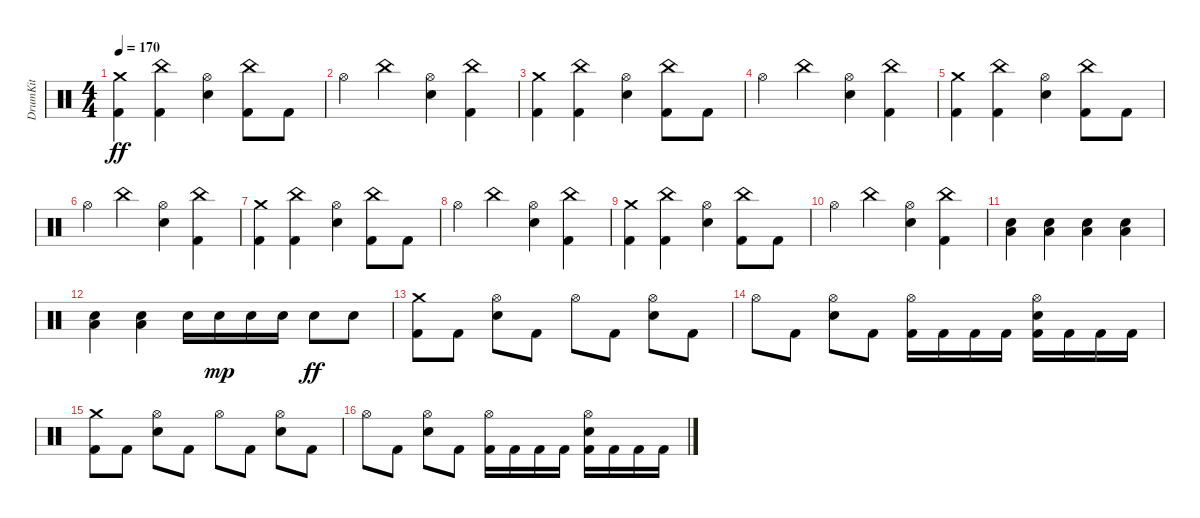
\track ("DrumKit" "DrumKit") {instrument percussion}
\staff {score}
\articulation defaults
\ts (4 4)
\tempo 170
\clef neutral
\ks c
("Kick (hit) 2" "Crash medium (hit)").4{dy ff} ("Kick (hit) 2" "China (hit)").4 ("Snare (hit) 2" "Hi-Hat (open)").4 ("Kick (hit) 2" "China (hit)").8 "Kick (hit) 2".8 |
"Hi-Hat (open)".4 "China (hit)".4 ("Snare (hit) 2" "Hi-Hat (open)").4 ("Kick (hit) 2" "China (hit)").4 |
("Kick (hit) 2" "Crash medium (hit)").4 ("Kick (hit) 2" "China (hit)").4 ("Snare (hit) 2" "Hi-Hat (open)").4 ("Kick (hit) 2" "China (hit)").8 "Kick (hit) 2".8 |
"Hi-Hat (open)".4 "China (hit)".4 ("Snare (hit) 2" "Hi-Hat (open)").4 ("Kick (hit) 2" "China (hit)").4 |
("Kick (hit) 2" "Crash medium (hit)").4 ("Kick (hit) 2" "China (hit)").4 ("Snare (hit) 2" "Hi-Hat (open)").4 ("Kick (hit) 2" "China (hit)").8 "Kick (hit) 2".8 |
"Hi-Hat (open)".4 "China (hit)".4 ("Snare (hit) 2" "Hi-Hat (open)").4 ("Kick (hit) 2" "China (hit)").4 |
("Kick (hit) 2" "Crash medium (hit)").4 ("Kick (hit) 2" "China (hit)").4 ("Snare (hit) 2" "Hi-Hat (open)").4 ("Kick (hit) 2" "China (hit)").8 "Kick (hit) 2".8 |
"Hi-Hat (open)".4 "China (hit)".4 ("Snare (hit) 2" "Hi-Hat (open)").4 ("Kick (hit) 2" "China (hit)").4 |
("Kick (hit) 2" "Crash medium (hit)").4 ("Kick (hit) 2" "China (hit)").4 ("Snare (hit) 2" "Hi-Hat (open)").4 ("Kick (hit) 2" "China (hit)").8 "Kick (hit) 2".8 |
"Hi-Hat (open)".4 "China (hit)".4 ("Snare (hit) 2" "Hi-Hat (open)").4 ("Kick (hit) 2" "China (hit)").4 |
("Snare (hit) 2" "Low Floor Tom (hit)").4 ("Snare (hit) 2" "Low Floor Tom (hit)").4 ("Snare (hit) 2" "Low Floor Tom (hit)").4 ("Snare (hit) 2" "Low Floor Tom (hit)").4 |
("Snare (hit) 2" "Low Floor Tom (hit)").4 ("Snare (hit) 2" "Low Floor Tom (hit)").4 "Snare (hit) 2".16 "Snare (hit) 2".16{dy mp} "Snare (hit) 2".16 "Snare (hit) 2".16 "Snare (hit) 2".8{dy ff} "Snare (hit) 2".8 |
("Kick (hit) 2" "Crash medium (hit)").8 "Kick (hit) 2".8 ("Snare (hit) 2" "Hi-Hat (open)").8 "Kick (hit) 2".8 "Hi-Hat (open)".8 "Kick (hit) 2".8 ("Snare (hit) 2" "Hi-Hat (open)").8 "Kick (hit) 2".8 |
"Hi-Hat (open)".8 "Kick (hit) 2".8 ("Snare (hit) 2" "Hi-Hat (open)").8 "Kick (hit) 2".8 ("Kick (hit) 2" "Hi-Hat (open)").16 "Kick (hit) 2".16 "Kick (hit) 2".16 "Kick (hit) 2".16 ("Kick (hit) 2" "Snare (hit) 2" "Hi-Hat (open)").16 "Kick (hit) 2".16 "Kick (hit) 2".16 "Kick (hit) 2".16 |
("Kick (hit) 2" "Crash medium (hit)").8 "Kick (hit) 2".8 ("Snare (hit) 2" "Hi-Hat (open)").8 "Kick (hit) 2".8 "Hi-Hat (open)".8 "Kick (hit) 2".8 ("Snare (hit) 2" "Hi-Hat (open)").8 "Kick (hit) 2".8 |
"Hi-Hat (open)".8 "Kick (hit) 2".8 ("Snare (hit) 2" "Hi-Hat (open)").8 "Kick (hit) 2".8 ("Kick (hit) 2" "Hi-Hat (open)").16 "Kick (hit) 2".16 "Kick (hit) 2".16 "Kick (hit) 2".16 ("Kick (hit) 2" "Snare (hit) 2" "Hi-Hat (open)").16 "Kick (hit) 2".16 "Kick (hit) 2".16 "Kick (hit) 2".16
